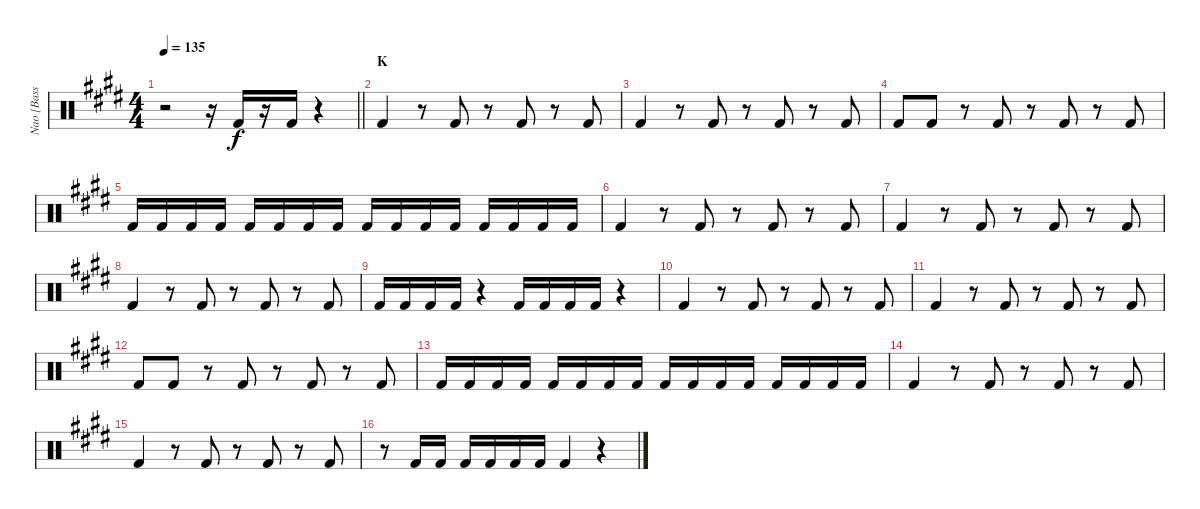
\track ("Nao [Bass Drum]" "Nao [Bass ") {instrument percussion}
\staff {score}
\articulation defaults
\ts (4 4)
\tempo 135
\clef neutral
\barLineRight lightlight
\ks e
r.2{dy f} r.16 "Kick (hit) 2".16 r.16 "Kick (hit) 2".16 r.4 |
\section ("" "K")
"Kick (hit) 2".4 r.8 "Kick (hit) 2".8 r.8 "Kick (hit) 2".8 r.8 "Kick (hit) 2".8 |
"Kick (hit) 2".4 r.8 "Kick (hit) 2".8 r.8 "Kick (hit) 2".8 r.8 "Kick (hit) 2".8 |
"Kick (hit) 2".8 "Kick (hit) 2".8 r.8 "Kick (hit) 2".8 r.8 "Kick (hit) 2".8 r.8 "Kick (hit) 2".8 |
"Kick (hit) 2".16 "Kick (hit) 2".16 "Kick (hit) 2".16 "Kick (hit) 2".16 "Kick (hit) 2".16 "Kick (hit) 2".16 "Kick (hit) 2".16 "Kick (hit) 2".16 "Kick (hit) 2".16 "Kick (hit) 2".16 "Kick (hit) 2".16 "Kick (hit) 2".16 "Kick (hit) 2".16 "Kick (hit) 2".16 "Kick (hit) 2".16 "Kick (hit) 2".16 |
"Kick (hit) 2".4 r.8 "Kick (hit) 2".8 r.8 "Kick (hit) 2".8 r.8 "Kick (hit) 2".8 |
"Kick (hit) 2".4 r.8 "Kick (hit) 2".8 r.8 "Kick (hit) 2".8 r.8 "Kick (hit) 2".8 |
"Kick (hit) 2".4 r.8 "Kick (hit) 2".8 r.8 "Kick (hit) 2".8 r.8 "Kick (hit) 2".8 |
"Kick (hit) 2".16 "Kick (hit) 2".16 "Kick (hit) 2".16 "Kick (hit) 2".16 r.4 "Kick (hit) 2".16 "Kick (hit) 2".16 "Kick (hit) 2".16 "Kick (hit) 2".16 r.4 |
"Kick (hit) 2".4 r.8 "Kick (hit) 2".8 r.8 "Kick (hit) 2".8 r.8 "Kick (hit) 2".8 |
"Kick (hit) 2".4 r.8 "Kick (hit) 2".8 r.8 "Kick (hit) 2".8 r.8 "Kick (hit) 2".8 |
"Kick (hit) 2".8 "Kick (hit) 2".8 r.8 "Kick (hit) 2".8 r.8 "Kick (hit) 2".8 r.8 "Kick (hit) 2".8 |
"Kick (hit) 2".16 "Kick (hit) 2".16 "Kick (hit) 2".16 "Kick (hit) 2".16 "Kick (hit) 2".16 "Kick (hit) 2".16 "Kick (hit) 2".16 "Kick (hit) 2".16 "Kick (hit) 2".16 "Kick (hit) 2".16 "Kick (hit) 2".16 "Kick (hit) 2".16 "Kick (hit) 2".16 "Kick (hit) 2".16 "Kick (hit) 2".16 "Kick (hit) 2".16 |
"Kick (hit) 2".4 r.8 "Kick (hit) 2".8 r.8 "Kick (hit) 2".8 r.8 "Kick (hit) 2".8 |
"Kick (hit) 2".4 r.8 "Kick (hit) 2".8 r.8 "Kick (hit) 2".8 r.8 "Kick (hit) 2".8 |
r.8 "Kick (hit) 2".16 "Kick (hit) 2".16 "Kick (hit) 2".16 "Kick (hit) 2".16 "Kick (hit) 2".16 "Kick (hit) 2".16 "Kick (hit) 2".4 r.4
